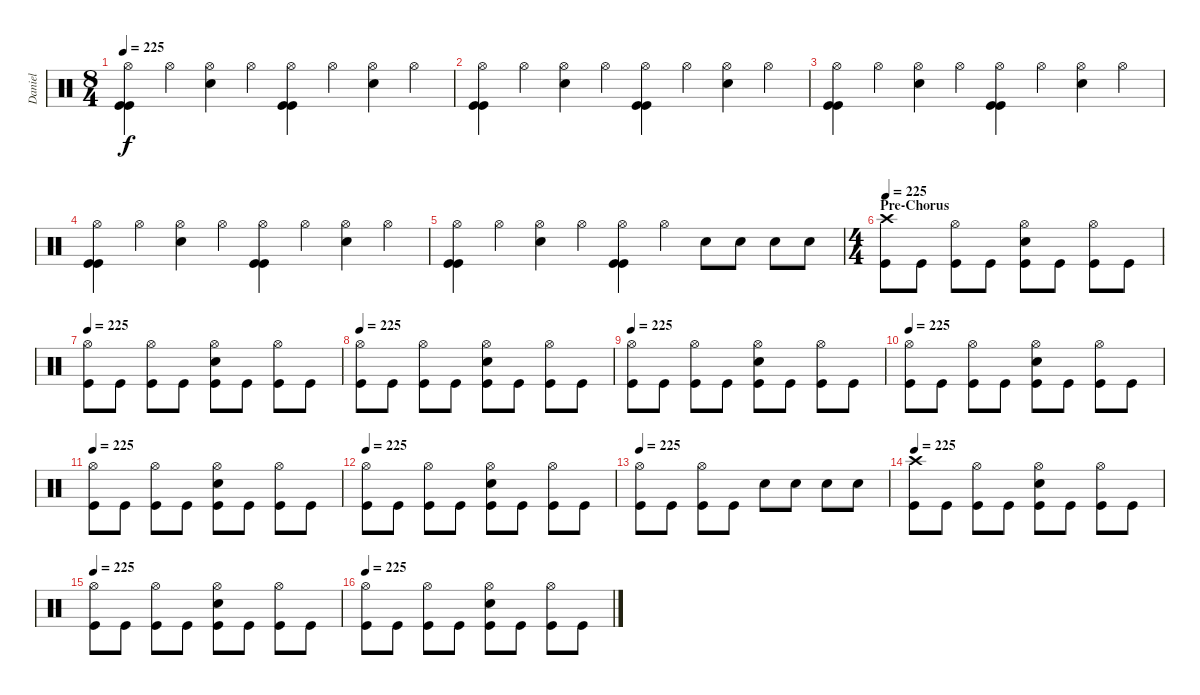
\track ("Daniel" "Daniel") {instrument percussion}
\staff {score}
\articulation defaults
\ts (8 4)
\tempo 225
\clef neutral
\ks c
("Hi-Hat (open)" "Kick (hit)" "Kick (hit)").4{dy f} "Hi-Hat (open)".4 ("Hi-Hat (open)" "Snare (hit) 2").4 "Hi-Hat (open)".4 ("Hi-Hat (open)" "Kick (hit)" "Kick (hit)").4 "Hi-Hat (open)".4 ("Hi-Hat (open)" "Snare (hit) 2").4 "Hi-Hat (open)".4 |
("Hi-Hat (open)" "Kick (hit)" "Kick (hit)").4 "Hi-Hat (open)".4 ("Hi-Hat (open)" "Snare (hit) 2").4 "Hi-Hat (open)".4 ("Hi-Hat (open)" "Kick (hit)" "Kick (hit)").4 "Hi-Hat (open)".4 ("Hi-Hat (open)" "Snare (hit) 2").4 "Hi-Hat (open)".4 |
("Hi-Hat (open)" "Kick (hit)" "Kick (hit)").4 "Hi-Hat (open)".4 ("Hi-Hat (open)" "Snare (hit) 2").4 "Hi-Hat (open)".4 ("Hi-Hat (open)" "Kick (hit)" "Kick (hit)").4 "Hi-Hat (open)".4 ("Hi-Hat (open)" "Snare (hit) 2").4 "Hi-Hat (open)".4 |
("Hi-Hat (open)" "Kick (hit)" "Kick (hit)").4 "Hi-Hat (open)".4 ("Hi-Hat (open)" "Snare (hit) 2").4 "Hi-Hat (open)".4 ("Hi-Hat (open)" "Kick (hit)" "Kick (hit)").4 "Hi-Hat (open)".4 ("Hi-Hat (open)" "Snare (hit) 2").4 "Hi-Hat (open)".4 |
("Hi-Hat (open)" "Kick (hit)" "Kick (hit)").4 "Hi-Hat (open)".4 ("Hi-Hat (open)" "Snare (hit) 2").4 "Hi-Hat (open)".4 ("Hi-Hat (open)" "Kick (hit)" "Kick (hit)").4 "Hi-Hat (open)".4 "Snare (hit) 2".8 "Snare (hit) 2".8 "Snare (hit) 2".8 "Snare (hit) 2".8 |
\ts (4 4)
\section ("" "Pre-Chorus")
\tempo 225
("Crash high (hit)" "Kick (hit)").8 "Kick (hit)".8 ("Hi-Hat (open)" "Kick (hit)").8 "Kick (hit)".8 ("Hi-Hat (open)" "Snare (hit) 2" "Kick (hit)").8 "Kick (hit)".8 ("Hi-Hat (open)" "Kick (hit)").8 "Kick (hit)".8 |
\tempo 225
("Hi-Hat (open)" "Kick (hit)").8 "Kick (hit)".8 ("Hi-Hat (open)" "Kick (hit)").8 "Kick (hit)".8 ("Hi-Hat (open)" "Snare (hit) 2" "Kick (hit)").8 "Kick (hit)".8 ("Hi-Hat (open)" "Kick (hit)").8 "Kick (hit)".8 |
\tempo 225
("Hi-Hat (open)" "Kick (hit)").8 "Kick (hit)".8 ("Hi-Hat (open)" "Kick (hit)").8 "Kick (hit)".8 ("Hi-Hat (open)" "Snare (hit) 2" "Kick (hit)").8 "Kick (hit)".8 ("Hi-Hat (open)" "Kick (hit)").8 "Kick (hit)".8 |
\tempo 225
("Hi-Hat (open)" "Kick (hit)").8 "Kick (hit)".8 ("Hi-Hat (open)" "Kick (hit)").8 "Kick (hit)".8 ("Hi-Hat (open)" "Snare (hit) 2" "Kick (hit)").8 "Kick (hit)".8 ("Hi-Hat (open)" "Kick (hit)").8 "Kick (hit)".8 |
\tempo 225
("Hi-Hat (open)" "Kick (hit)").8 "Kick (hit)".8 ("Hi-Hat (open)" "Kick (hit)").8 "Kick (hit)".8 ("Hi-Hat (open)" "Snare (hit) 2" "Kick (hit)").8 "Kick (hit)".8 ("Hi-Hat (open)" "Kick (hit)").8 "Kick (hit)".8 |
\tempo 225
("Hi-Hat (open)" "Kick (hit)").8 "Kick (hit)".8 ("Hi-Hat (open)" "Kick (hit)").8 "Kick (hit)".8 ("Hi-Hat (open)" "Snare (hit) 2" "Kick (hit)").8 "Kick (hit)".8 ("Hi-Hat (open)" "Kick (hit)").8 "Kick (hit)".8 |
\tempo 225
("Hi-Hat (open)" "Kick (hit)").8 "Kick (hit)".8 ("Hi-Hat (open)" "Kick (hit)").8 "Kick (hit)".8 ("Hi-Hat (open)" "Snare (hit) 2" "Kick (hit)").8 "Kick (hit)".8 ("Hi-Hat (open)" "Kick (hit)").8 "Kick (hit)".8 |
\tempo 225
("Hi-Hat (open)" "Kick (hit)").8 "Kick (hit)".8 ("Hi-Hat (open)" "Kick (hit)").8 "Kick (hit)".8 "Snare (hit) 2".8 "Snare (hit) 2".8 "Snare (hit) 2".8 "Snare (hit) 2".8 |
\tempo 225
("Crash high (hit)" "Kick (hit)").8 "Kick (hit)".8 ("Hi-Hat (open)" "Kick (hit)").8 "Kick (hit)".8 ("Hi-Hat (open)" "Snare (hit) 2" "Kick (hit)").8 "Kick (hit)".8 ("Hi-Hat (open)" "Kick (hit)").8 "Kick (hit)".8 |
\tempo 225
("Hi-Hat (open)" "Kick (hit)").8 "Kick (hit)".8 ("Hi-Hat (open)" "Kick (hit)").8 "Kick (hit)".8 ("Hi-Hat (open)" "Snare (hit) 2" "Kick (hit)").8 "Kick (hit)".8 ("Hi-Hat (open)" "Kick (hit)").8 "Kick (hit)".8 |
\tempo 225
("Hi-Hat (open)" "Kick (hit)").8 "Kick (hit)".8 ("Hi-Hat (open)" "Kick (hit)").8 "Kick (hit)".8 ("Hi-Hat (open)" "Snare (hit) 2" "Kick (hit)").8 "Kick (hit)".8 ("Hi-Hat (open)" "Kick (hit)").8 "Kick (hit)".8
